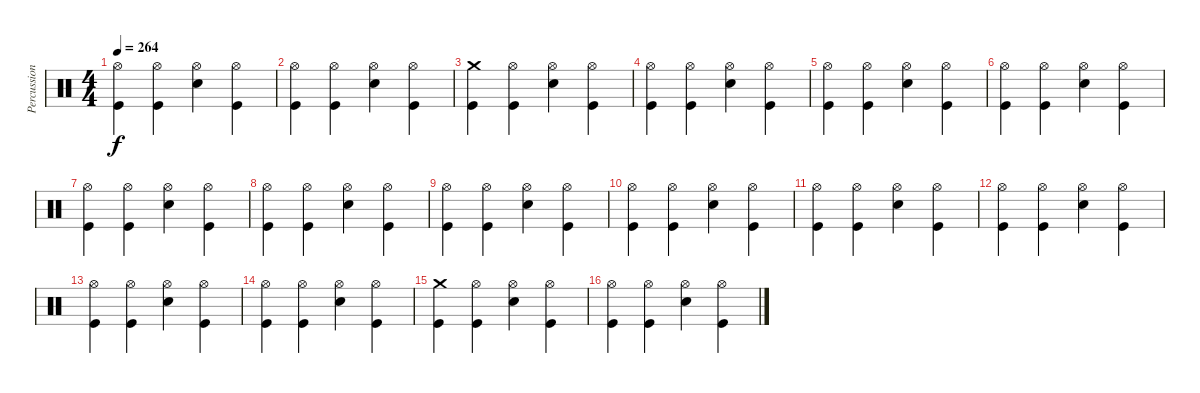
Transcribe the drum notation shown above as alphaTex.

\track ("Percussion" "Percussion") {instrument percussion}
\staff {score}
\articulation defaults
\ts (4 4)
\tempo 264
\clef neutral
\ks c
("Hi-Hat (open)" "Kick (hit)").4{dy f} ("Hi-Hat (open)" "Kick (hit)").4 ("Hi-Hat (open)" "Snare (hit) 2").4 ("Hi-Hat (open)" "Kick (hit)").4 |
("Hi-Hat (open)" "Kick (hit)").4 ("Hi-Hat (open)" "Kick (hit)").4 ("Hi-Hat (open)" "Snare (hit) 2").4 ("Hi-Hat (open)" "Kick (hit)").4 |
("Crash medium (hit)" "Kick (hit)").4 ("Hi-Hat (open)" "Kick (hit)").4 ("Hi-Hat (open)" "Snare (hit) 2").4 ("Hi-Hat (open)" "Kick (hit)").4 |
("Hi-Hat (open)" "Kick (hit)").4 ("Hi-Hat (open)" "Kick (hit)").4 ("Hi-Hat (open)" "Snare (hit) 2").4 ("Hi-Hat (open)" "Kick (hit)").4 |
("Hi-Hat (open)" "Kick (hit)").4 ("Hi-Hat (open)" "Kick (hit)").4 ("Hi-Hat (open)" "Snare (hit) 2").4 ("Hi-Hat (open)" "Kick (hit)").4 |
("Hi-Hat (open)" "Kick (hit)").4 ("Hi-Hat (open)" "Kick (hit)").4 ("Hi-Hat (open)" "Snare (hit) 2").4 ("Hi-Hat (open)" "Kick (hit)").4 |
("Hi-Hat (open)" "Kick (hit)").4 ("Hi-Hat (open)" "Kick (hit)").4 ("Hi-Hat (open)" "Snare (hit) 2").4 ("Hi-Hat (open)" "Kick (hit)").4 |
("Hi-Hat (open)" "Kick (hit)").4 ("Hi-Hat (open)" "Kick (hit)").4 ("Hi-Hat (open)" "Snare (hit) 2").4 ("Hi-Hat (open)" "Kick (hit)").4 |
("Hi-Hat (open)" "Kick (hit)").4 ("Hi-Hat (open)" "Kick (hit)").4 ("Hi-Hat (open)" "Snare (hit) 2").4 ("Hi-Hat (open)" "Kick (hit)").4 |
("Hi-Hat (open)" "Kick (hit)").4 ("Hi-Hat (open)" "Kick (hit)").4 ("Hi-Hat (open)" "Snare (hit) 2").4 ("Hi-Hat (open)" "Kick (hit)").4 |
("Hi-Hat (open)" "Kick (hit)").4 ("Hi-Hat (open)" "Kick (hit)").4 ("Hi-Hat (open)" "Snare (hit) 2").4 ("Hi-Hat (open)" "Kick (hit)").4 |
("Hi-Hat (open)" "Kick (hit)").4 ("Hi-Hat (open)" "Kick (hit)").4 ("Hi-Hat (open)" "Snare (hit) 2").4 ("Hi-Hat (open)" "Kick (hit)").4 |
("Hi-Hat (open)" "Kick (hit)").4 ("Hi-Hat (open)" "Kick (hit)").4 ("Hi-Hat (open)" "Snare (hit) 2").4 ("Hi-Hat (open)" "Kick (hit)").4 |
("Hi-Hat (open)" "Kick (hit)").4 ("Hi-Hat (open)" "Kick (hit)").4 ("Hi-Hat (open)" "Snare (hit) 2").4 ("Hi-Hat (open)" "Kick (hit)").4 |
("Crash medium (hit)" "Kick (hit)").4 ("Hi-Hat (open)" "Kick (hit)").4 ("Hi-Hat (open)" "Snare (hit) 2").4 ("Hi-Hat (open)" "Kick (hit)").4 |
("Hi-Hat (open)" "Kick (hit)").4 ("Hi-Hat (open)" "Kick (hit)").4 ("Hi-Hat (open)" "Snare (hit) 2").4 ("Hi-Hat (open)" "Kick (hit)").4
